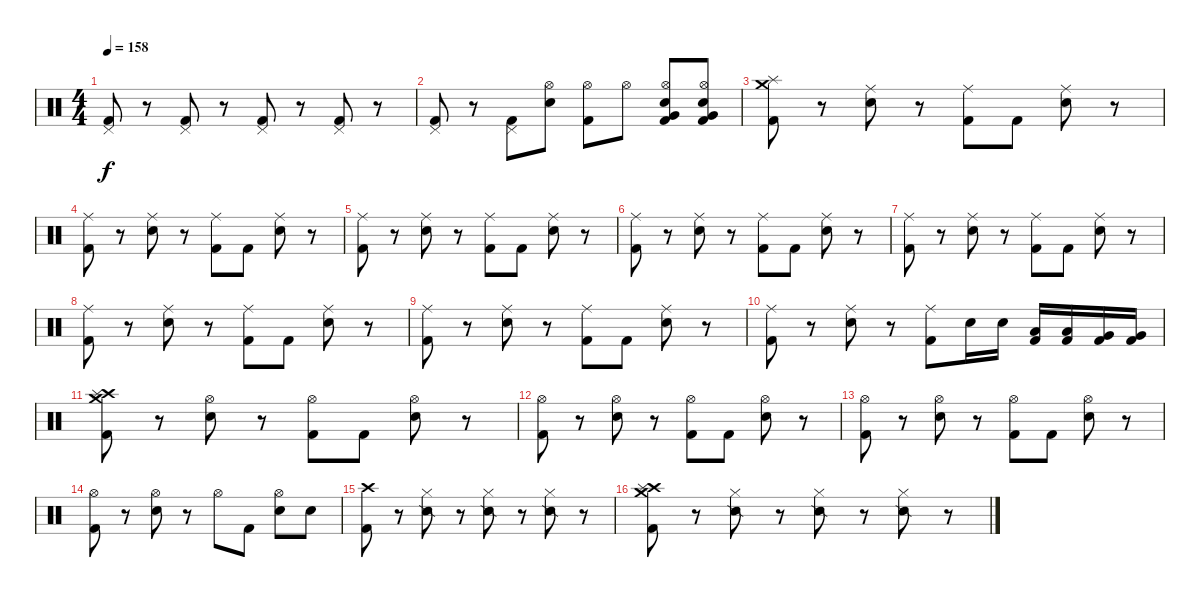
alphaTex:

\track "" {instrument percussion}
\staff {score}
\articulation defaults
\ts (4 4)
\tempo 158
\clef neutral
\ks c
("Pedal Hi-Hat (hit)" "Kick (hit) 2").8{dy f} r.8 ("Pedal Hi-Hat (hit)" "Kick (hit) 2").8 r.8 ("Pedal Hi-Hat (hit)" "Kick (hit) 2").8 r.8 ("Pedal Hi-Hat (hit)" "Kick (hit) 2").8 r.8 |
("Pedal Hi-Hat (hit)" "Kick (hit) 2").8 r.8 ("Pedal Hi-Hat (hit)" "Kick (hit) 2").8 ("Hi-Hat (open)" "Electric Snare (hit)").8 ("Hi-Hat (open)" "Kick (hit) 2").8 "Hi-Hat (open)".8 ("Hi-Hat (open)" "Electric Snare (hit)" "Very Low Tom (hit)" "Kick (hit) 2").8 ("Hi-Hat (open)" "Electric Snare (hit)" "Very Low Tom (hit)" "Kick (hit) 2").8 |
("Crash medium (hit)" "Splash (hit)" "Kick (hit) 2").8 r.8 ("Ride (middle)" "Electric Snare (hit)").8 r.8 ("Ride (middle)" "Kick (hit) 2").8 "Kick (hit) 2".8 ("Ride (middle)" "Electric Snare (hit)").8 r.8 |
("Ride (middle)" "Kick (hit) 2").8 r.8 ("Ride (middle)" "Electric Snare (hit)").8 r.8 ("Ride (middle)" "Kick (hit) 2").8 "Kick (hit) 2".8 ("Ride (middle)" "Electric Snare (hit)").8 r.8 |
("Ride (middle)" "Kick (hit) 2").8 r.8 ("Ride (middle)" "Electric Snare (hit)").8 r.8 ("Ride (middle)" "Kick (hit) 2").8 "Kick (hit) 2".8 ("Ride (middle)" "Electric Snare (hit)").8 r.8 |
("Ride (middle)" "Kick (hit) 2").8 r.8 ("Ride (middle)" "Electric Snare (hit)").8 r.8 ("Ride (middle)" "Kick (hit) 2").8 "Kick (hit) 2".8 ("Ride (middle)" "Electric Snare (hit)").8 r.8 |
("Ride (middle)" "Kick (hit) 2").8 r.8 ("Ride (middle)" "Electric Snare (hit)").8 r.8 ("Ride (middle)" "Kick (hit) 2").8 "Kick (hit) 2".8 ("Ride (middle)" "Electric Snare (hit)").8 r.8 |
("Ride (middle)" "Kick (hit) 2").8 r.8 ("Ride (middle)" "Electric Snare (hit)").8 r.8 ("Ride (middle)" "Kick (hit) 2").8 "Kick (hit) 2".8 ("Ride (middle)" "Electric Snare (hit)").8 r.8 |
("Ride (middle)" "Kick (hit) 2").8 r.8 ("Ride (middle)" "Electric Snare (hit)").8 r.8 ("Ride (middle)" "Kick (hit) 2").8 "Kick (hit) 2".8 ("Ride (middle)" "Electric Snare (hit)").8 r.8 |
("Ride (middle)" "Kick (hit) 2").8 r.8 ("Ride (middle)" "Electric Snare (hit)").8 r.8 ("Ride (middle)" "Kick (hit) 2").8 "Electric Snare (hit)".16 "Electric Snare (hit)".16 ("Low Tom (hit)" "Kick (hit) 2").16 ("Low Tom (hit)" "Kick (hit) 2").16 ("Very Low Tom (hit)" "Kick (hit) 2").16 ("Very Low Tom (hit)" "Kick (hit) 2").16 |
("Crash high (hit)" "Splash (hit)" "Crash medium (hit)" "Kick (hit) 2").8 r.8 ("Hi-Hat (open)" "Electric Snare (hit)").8 r.8 ("Hi-Hat (open)" "Kick (hit) 2").8 "Kick (hit) 2".8 ("Hi-Hat (open)" "Electric Snare (hit)").8 r.8 |
("Hi-Hat (open)" "Kick (hit) 2").8 r.8 ("Hi-Hat (open)" "Electric Snare (hit)").8 r.8 ("Hi-Hat (open)" "Kick (hit) 2").8 "Kick (hit) 2".8 ("Hi-Hat (open)" "Electric Snare (hit)").8 r.8 |
("Hi-Hat (open)" "Kick (hit) 2").8 r.8 ("Hi-Hat (open)" "Electric Snare (hit)").8 r.8 ("Hi-Hat (open)" "Kick (hit) 2").8 "Kick (hit) 2".8 ("Hi-Hat (open)" "Electric Snare (hit)").8 r.8 |
("Hi-Hat (open)" "Kick (hit) 2").8 r.8 ("Hi-Hat (open)" "Electric Snare (hit)").8 r.8 "Hi-Hat (open)".8 "Kick (hit) 2".8 ("Hi-Hat (open)" "Electric Snare (hit)").8 "Electric Snare (hit)".8 |
("Crash high (hit)" "Kick (hit) 2").8 r.8 ("Snare (side stick) 2" "Hi-Hat (closed)").8 r.8 ("Snare (side stick) 2" "Hi-Hat (closed)").8 r.8 ("Snare (side stick) 2" "Hi-Hat (closed)").8 r.8 |
("Crash high (hit)" "Splash (hit)" "Crash medium (hit)" "Kick (hit) 2").8 r.8 ("Snare (side stick) 2" "Hi-Hat (closed)").8 r.8 ("Snare (side stick) 2" "Hi-Hat (closed)").8 r.8 ("Snare (side stick) 2" "Hi-Hat (closed)").8 r.8
